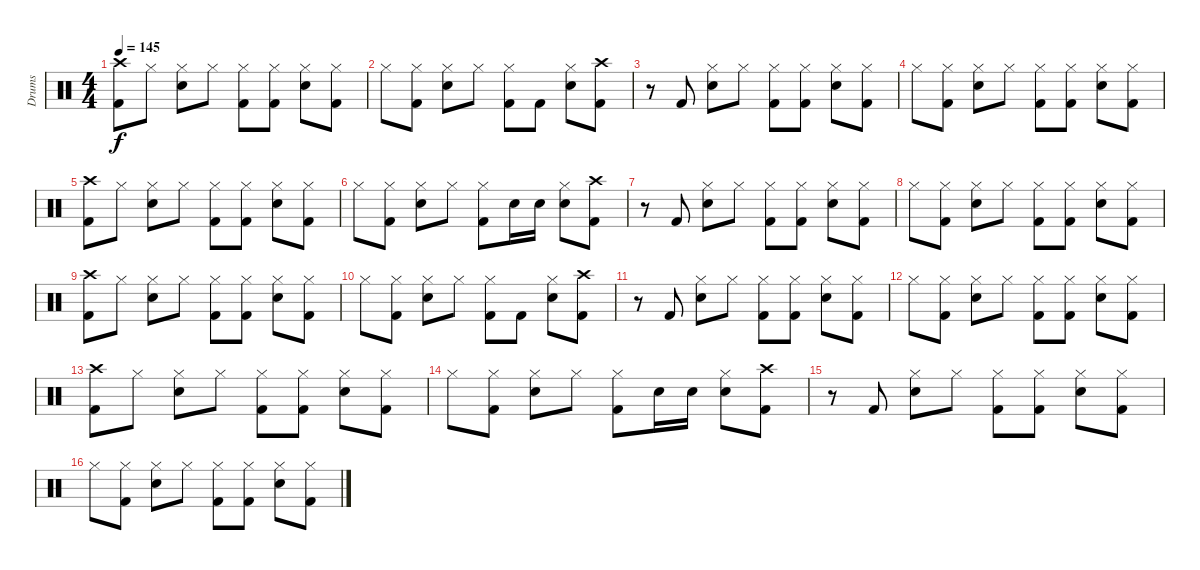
\track ("Drums" "Drums") {instrument percussion}
\staff {score}
\articulation defaults
\ts (4 4)
\tempo 145
\clef neutral
\ks c
("Crash high (hit)" "Kick (hit) 2").8{dy f} "Hi-Hat (closed)".8 ("Hi-Hat (closed)" "Snare (hit) 2").8 "Hi-Hat (closed)".8 ("Hi-Hat (closed)" "Kick (hit) 2").8 ("Hi-Hat (closed)" "Kick (hit) 2").8 ("Hi-Hat (closed)" "Snare (hit) 2").8 ("Hi-Hat (closed)" "Kick (hit) 2").8 |
"Hi-Hat (closed)".8 ("Hi-Hat (closed)" "Kick (hit) 2").8 ("Hi-Hat (closed)" "Snare (hit) 2").8 "Hi-Hat (closed)".8 ("Hi-Hat (closed)" "Kick (hit) 2").8 "Kick (hit) 2".8 ("Hi-Hat (closed)" "Snare (hit) 2").8 ("Crash high (hit)" "Kick (hit) 2").8 |
r.8 "Kick (hit) 2".8 ("Hi-Hat (closed)" "Snare (hit) 2").8 "Hi-Hat (closed)".8 ("Hi-Hat (closed)" "Kick (hit) 2").8 ("Hi-Hat (closed)" "Kick (hit) 2").8 ("Hi-Hat (closed)" "Snare (hit) 2").8 ("Hi-Hat (closed)" "Kick (hit) 2").8 |
"Hi-Hat (closed)".8 ("Hi-Hat (closed)" "Kick (hit) 2").8 ("Hi-Hat (closed)" "Snare (hit) 2").8 "Hi-Hat (closed)".8 ("Hi-Hat (closed)" "Kick (hit) 2").8 ("Hi-Hat (closed)" "Kick (hit) 2").8 ("Hi-Hat (closed)" "Snare (hit) 2").8 ("Hi-Hat (closed)" "Kick (hit) 2").8 |
("Crash high (hit)" "Kick (hit) 2").8 "Hi-Hat (closed)".8 ("Hi-Hat (closed)" "Snare (hit) 2").8 "Hi-Hat (closed)".8 ("Hi-Hat (closed)" "Kick (hit) 2").8 ("Hi-Hat (closed)" "Kick (hit) 2").8 ("Hi-Hat (closed)" "Snare (hit) 2").8 ("Hi-Hat (closed)" "Kick (hit) 2").8 |
"Hi-Hat (closed)".8 ("Hi-Hat (closed)" "Kick (hit) 2").8 ("Hi-Hat (closed)" "Snare (hit) 2").8 "Hi-Hat (closed)".8 ("Hi-Hat (closed)" "Kick (hit) 2").8 "Snare (hit) 2".16 "Snare (hit) 2".16 ("Hi-Hat (closed)" "Snare (hit) 2").8 ("Crash high (hit)" "Kick (hit) 2").8 |
r.8 "Kick (hit) 2".8 ("Hi-Hat (closed)" "Snare (hit) 2").8 "Hi-Hat (closed)".8 ("Hi-Hat (closed)" "Kick (hit) 2").8 ("Hi-Hat (closed)" "Kick (hit) 2").8 ("Hi-Hat (closed)" "Snare (hit) 2").8 ("Hi-Hat (closed)" "Kick (hit) 2").8 |
"Hi-Hat (closed)".8 ("Hi-Hat (closed)" "Kick (hit) 2").8 ("Hi-Hat (closed)" "Snare (hit) 2").8 "Hi-Hat (closed)".8 ("Hi-Hat (closed)" "Kick (hit) 2").8 ("Hi-Hat (closed)" "Kick (hit) 2").8 ("Hi-Hat (closed)" "Snare (hit) 2").8 ("Hi-Hat (closed)" "Kick (hit) 2").8 |
("Crash high (hit)" "Kick (hit) 2").8 "Hi-Hat (closed)".8 ("Hi-Hat (closed)" "Snare (hit) 2").8 "Hi-Hat (closed)".8 ("Hi-Hat (closed)" "Kick (hit) 2").8 ("Hi-Hat (closed)" "Kick (hit) 2").8 ("Hi-Hat (closed)" "Snare (hit) 2").8 ("Hi-Hat (closed)" "Kick (hit) 2").8 |
"Hi-Hat (closed)".8 ("Hi-Hat (closed)" "Kick (hit) 2").8 ("Hi-Hat (closed)" "Snare (hit) 2").8 "Hi-Hat (closed)".8 ("Hi-Hat (closed)" "Kick (hit) 2").8 "Kick (hit) 2".8 ("Hi-Hat (closed)" "Snare (hit) 2").8 ("Crash high (hit)" "Kick (hit) 2").8 |
r.8 "Kick (hit) 2".8 ("Hi-Hat (closed)" "Snare (hit) 2").8 "Hi-Hat (closed)".8 ("Hi-Hat (closed)" "Kick (hit) 2").8 ("Hi-Hat (closed)" "Kick (hit) 2").8 ("Hi-Hat (closed)" "Snare (hit) 2").8 ("Hi-Hat (closed)" "Kick (hit) 2").8 |
"Hi-Hat (closed)".8 ("Hi-Hat (closed)" "Kick (hit) 2").8 ("Hi-Hat (closed)" "Snare (hit) 2").8 "Hi-Hat (closed)".8 ("Hi-Hat (closed)" "Kick (hit) 2").8 ("Hi-Hat (closed)" "Kick (hit) 2").8 ("Hi-Hat (closed)" "Snare (hit) 2").8 ("Hi-Hat (closed)" "Kick (hit) 2").8 |
("Crash high (hit)" "Kick (hit) 2").8 "Hi-Hat (closed)".8 ("Hi-Hat (closed)" "Snare (hit) 2").8 "Hi-Hat (closed)".8 ("Hi-Hat (closed)" "Kick (hit) 2").8 ("Hi-Hat (closed)" "Kick (hit) 2").8 ("Hi-Hat (closed)" "Snare (hit) 2").8 ("Hi-Hat (closed)" "Kick (hit) 2").8 |
"Hi-Hat (closed)".8 ("Hi-Hat (closed)" "Kick (hit) 2").8 ("Hi-Hat (closed)" "Snare (hit) 2").8 "Hi-Hat (closed)".8 ("Hi-Hat (closed)" "Kick (hit) 2").8 "Snare (hit) 2".16 "Snare (hit) 2".16 ("Hi-Hat (closed)" "Snare (hit) 2").8 ("Crash high (hit)" "Kick (hit) 2").8 |
r.8 "Kick (hit) 2".8 ("Hi-Hat (closed)" "Snare (hit) 2").8 "Hi-Hat (closed)".8 ("Hi-Hat (closed)" "Kick (hit) 2").8 ("Hi-Hat (closed)" "Kick (hit) 2").8 ("Hi-Hat (closed)" "Snare (hit) 2").8 ("Hi-Hat (closed)" "Kick (hit) 2").8 |
"Hi-Hat (closed)".8 ("Hi-Hat (closed)" "Kick (hit) 2").8 ("Hi-Hat (closed)" "Snare (hit) 2").8 "Hi-Hat (closed)".8 ("Hi-Hat (closed)" "Kick (hit) 2").8 ("Hi-Hat (closed)" "Kick (hit) 2").8 ("Hi-Hat (closed)" "Snare (hit) 2").8 ("Hi-Hat (closed)" "Kick (hit) 2").8
